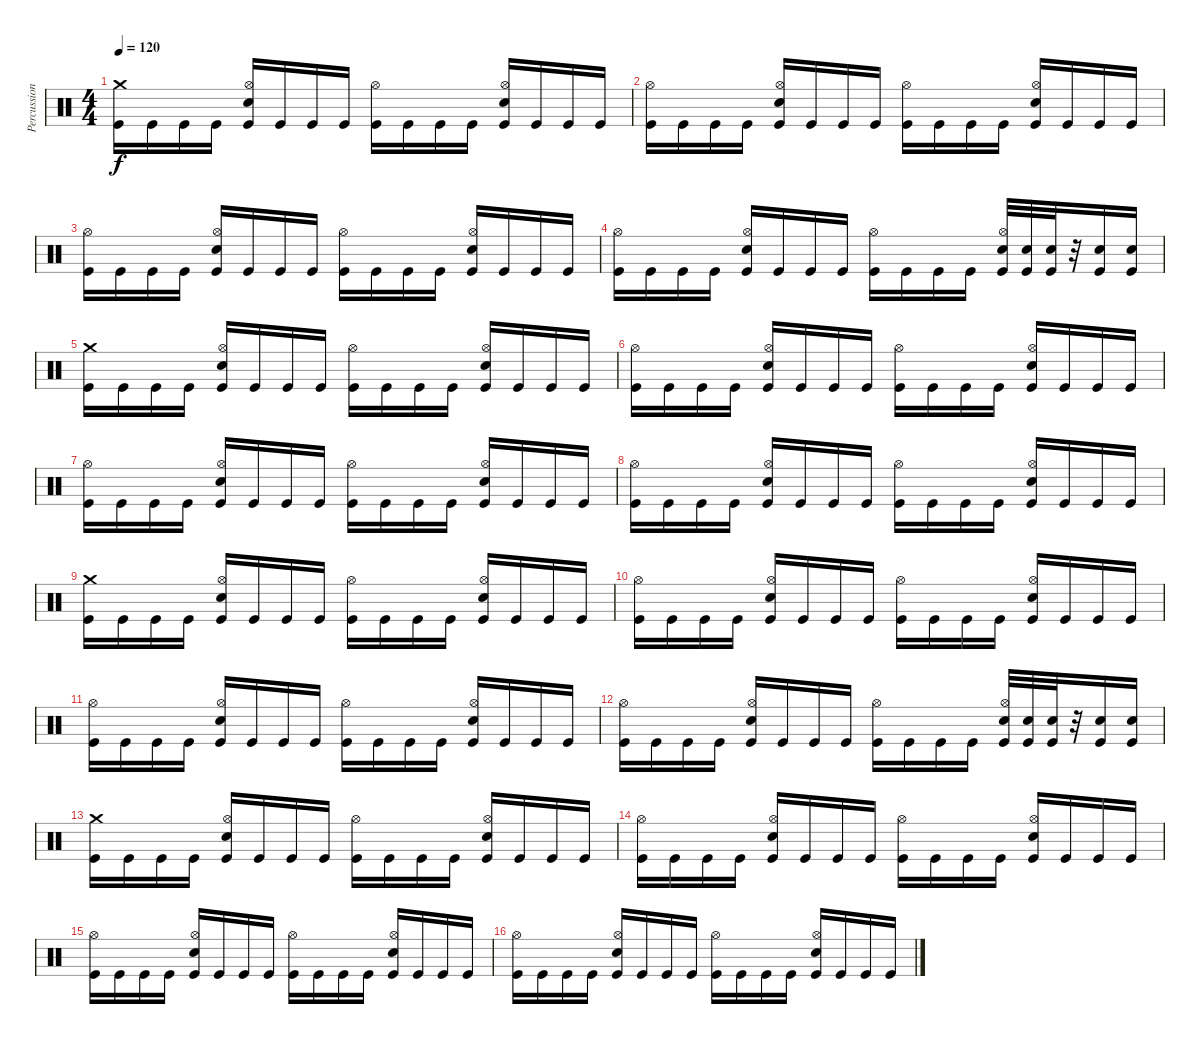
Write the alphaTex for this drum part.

\track ("Percussion" "Percussion") {instrument percussion}
\staff {score}
\articulation defaults
\ts (4 4)
\tempo 120
\clef neutral
\ks c
("Crash medium (hit)" "Kick (hit)").16{dy f} "Kick (hit)".16 "Kick (hit)".16 "Kick (hit)".16 ("Hi-Hat (open)" "Electric Snare (hit)" "Kick (hit)").16 "Kick (hit)".16 "Kick (hit)".16 "Kick (hit)".16 ("Hi-Hat (open)" "Kick (hit)").16 "Kick (hit)".16 "Kick (hit)".16 "Kick (hit)".16 ("Hi-Hat (open)" "Electric Snare (hit)" "Kick (hit)").16 "Kick (hit)".16 "Kick (hit)".16 "Kick (hit)".16 |
("Hi-Hat (open)" "Kick (hit)").16 "Kick (hit)".16 "Kick (hit)".16 "Kick (hit)".16 ("Hi-Hat (open)" "Electric Snare (hit)" "Kick (hit)").16 "Kick (hit)".16 "Kick (hit)".16 "Kick (hit)".16 ("Hi-Hat (open)" "Kick (hit)").16 "Kick (hit)".16 "Kick (hit)".16 "Kick (hit)".16 ("Hi-Hat (open)" "Electric Snare (hit)" "Kick (hit)").16 "Kick (hit)".16 "Kick (hit)".16 "Kick (hit)".16 |
("Hi-Hat (open)" "Kick (hit)").16 "Kick (hit)".16 "Kick (hit)".16 "Kick (hit)".16 ("Hi-Hat (open)" "Electric Snare (hit)" "Kick (hit)").16 "Kick (hit)".16 "Kick (hit)".16 "Kick (hit)".16 ("Hi-Hat (open)" "Kick (hit)").16 "Kick (hit)".16 "Kick (hit)".16 "Kick (hit)".16 ("Hi-Hat (open)" "Electric Snare (hit)" "Kick (hit)").16 "Kick (hit)".16 "Kick (hit)".16 "Kick (hit)".16 |
("Hi-Hat (open)" "Kick (hit)").16 "Kick (hit)".16 "Kick (hit)".16 "Kick (hit)".16 ("Hi-Hat (open)" "Electric Snare (hit)" "Kick (hit)").16 "Kick (hit)".16 "Kick (hit)".16 "Kick (hit)".16 ("Hi-Hat (open)" "Kick (hit)").16 "Kick (hit)".16 "Kick (hit)".16 "Kick (hit)".16 ("Hi-Hat (open)" "Electric Snare (hit)" "Kick (hit)").32 ("Electric Snare (hit)" "Kick (hit)").32 ("Electric Snare (hit)" "Kick (hit)").32 r.32 ("Electric Snare (hit)" "Kick (hit)").16 ("Electric Snare (hit)" "Kick (hit)").16 |
("Crash medium (hit)" "Kick (hit)").16 "Kick (hit)".16 "Kick (hit)".16 "Kick (hit)".16 ("Hi-Hat (open)" "Electric Snare (hit)" "Kick (hit)").16 "Kick (hit)".16 "Kick (hit)".16 "Kick (hit)".16 ("Hi-Hat (open)" "Kick (hit)").16 "Kick (hit)".16 "Kick (hit)".16 "Kick (hit)".16 ("Hi-Hat (open)" "Electric Snare (hit)" "Kick (hit)").16 "Kick (hit)".16 "Kick (hit)".16 "Kick (hit)".16 |
("Hi-Hat (open)" "Kick (hit)").16 "Kick (hit)".16 "Kick (hit)".16 "Kick (hit)".16 ("Hi-Hat (open)" "Electric Snare (hit)" "Kick (hit)").16 "Kick (hit)".16 "Kick (hit)".16 "Kick (hit)".16 ("Hi-Hat (open)" "Kick (hit)").16 "Kick (hit)".16 "Kick (hit)".16 "Kick (hit)".16 ("Hi-Hat (open)" "Electric Snare (hit)" "Kick (hit)").16 "Kick (hit)".16 "Kick (hit)".16 "Kick (hit)".16 |
("Hi-Hat (open)" "Kick (hit)").16 "Kick (hit)".16 "Kick (hit)".16 "Kick (hit)".16 ("Hi-Hat (open)" "Electric Snare (hit)" "Kick (hit)").16 "Kick (hit)".16 "Kick (hit)".16 "Kick (hit)".16 ("Hi-Hat (open)" "Kick (hit)").16 "Kick (hit)".16 "Kick (hit)".16 "Kick (hit)".16 ("Hi-Hat (open)" "Electric Snare (hit)" "Kick (hit)").16 "Kick (hit)".16 "Kick (hit)".16 "Kick (hit)".16 |
("Hi-Hat (open)" "Kick (hit)").16 "Kick (hit)".16 "Kick (hit)".16 "Kick (hit)".16 ("Hi-Hat (open)" "Electric Snare (hit)" "Kick (hit)").16 "Kick (hit)".16 "Kick (hit)".16 "Kick (hit)".16 ("Hi-Hat (open)" "Kick (hit)").16 "Kick (hit)".16 "Kick (hit)".16 "Kick (hit)".16 ("Hi-Hat (open)" "Electric Snare (hit)" "Kick (hit)").16 "Kick (hit)".16 "Kick (hit)".16 "Kick (hit)".16 |
("Crash medium (hit)" "Kick (hit)").16 "Kick (hit)".16 "Kick (hit)".16 "Kick (hit)".16 ("Hi-Hat (open)" "Electric Snare (hit)" "Kick (hit)").16 "Kick (hit)".16 "Kick (hit)".16 "Kick (hit)".16 ("Hi-Hat (open)" "Kick (hit)").16 "Kick (hit)".16 "Kick (hit)".16 "Kick (hit)".16 ("Hi-Hat (open)" "Electric Snare (hit)" "Kick (hit)").16 "Kick (hit)".16 "Kick (hit)".16 "Kick (hit)".16 |
("Hi-Hat (open)" "Kick (hit)").16 "Kick (hit)".16 "Kick (hit)".16 "Kick (hit)".16 ("Hi-Hat (open)" "Electric Snare (hit)" "Kick (hit)").16 "Kick (hit)".16 "Kick (hit)".16 "Kick (hit)".16 ("Hi-Hat (open)" "Kick (hit)").16 "Kick (hit)".16 "Kick (hit)".16 "Kick (hit)".16 ("Hi-Hat (open)" "Electric Snare (hit)" "Kick (hit)").16 "Kick (hit)".16 "Kick (hit)".16 "Kick (hit)".16 |
("Hi-Hat (open)" "Kick (hit)").16 "Kick (hit)".16 "Kick (hit)".16 "Kick (hit)".16 ("Hi-Hat (open)" "Electric Snare (hit)" "Kick (hit)").16 "Kick (hit)".16 "Kick (hit)".16 "Kick (hit)".16 ("Hi-Hat (open)" "Kick (hit)").16 "Kick (hit)".16 "Kick (hit)".16 "Kick (hit)".16 ("Hi-Hat (open)" "Electric Snare (hit)" "Kick (hit)").16 "Kick (hit)".16 "Kick (hit)".16 "Kick (hit)".16 |
("Hi-Hat (open)" "Kick (hit)").16 "Kick (hit)".16 "Kick (hit)".16 "Kick (hit)".16 ("Hi-Hat (open)" "Electric Snare (hit)" "Kick (hit)").16 "Kick (hit)".16 "Kick (hit)".16 "Kick (hit)".16 ("Hi-Hat (open)" "Kick (hit)").16 "Kick (hit)".16 "Kick (hit)".16 "Kick (hit)".16 ("Hi-Hat (open)" "Electric Snare (hit)" "Kick (hit)").32 ("Electric Snare (hit)" "Kick (hit)").32 ("Electric Snare (hit)" "Kick (hit)").32 r.32 ("Electric Snare (hit)" "Kick (hit)").16 ("Electric Snare (hit)" "Kick (hit)").16 |
("Crash medium (hit)" "Kick (hit)").16 "Kick (hit)".16 "Kick (hit)".16 "Kick (hit)".16 ("Hi-Hat (open)" "Electric Snare (hit)" "Kick (hit)").16 "Kick (hit)".16 "Kick (hit)".16 "Kick (hit)".16 ("Hi-Hat (open)" "Kick (hit)").16 "Kick (hit)".16 "Kick (hit)".16 "Kick (hit)".16 ("Hi-Hat (open)" "Electric Snare (hit)" "Kick (hit)").16 "Kick (hit)".16 "Kick (hit)".16 "Kick (hit)".16 |
("Hi-Hat (open)" "Kick (hit)").16 "Kick (hit)".16 "Kick (hit)".16 "Kick (hit)".16 ("Hi-Hat (open)" "Electric Snare (hit)" "Kick (hit)").16 "Kick (hit)".16 "Kick (hit)".16 "Kick (hit)".16 ("Hi-Hat (open)" "Kick (hit)").16 "Kick (hit)".16 "Kick (hit)".16 "Kick (hit)".16 ("Hi-Hat (open)" "Electric Snare (hit)" "Kick (hit)").16 "Kick (hit)".16 "Kick (hit)".16 "Kick (hit)".16 |
("Hi-Hat (open)" "Kick (hit)").16 "Kick (hit)".16 "Kick (hit)".16 "Kick (hit)".16 ("Hi-Hat (open)" "Electric Snare (hit)" "Kick (hit)").16 "Kick (hit)".16 "Kick (hit)".16 "Kick (hit)".16 ("Hi-Hat (open)" "Kick (hit)").16 "Kick (hit)".16 "Kick (hit)".16 "Kick (hit)".16 ("Hi-Hat (open)" "Electric Snare (hit)" "Kick (hit)").16 "Kick (hit)".16 "Kick (hit)".16 "Kick (hit)".16 |
("Hi-Hat (open)" "Kick (hit)").16 "Kick (hit)".16 "Kick (hit)".16 "Kick (hit)".16 ("Hi-Hat (open)" "Electric Snare (hit)" "Kick (hit)").16 "Kick (hit)".16 "Kick (hit)".16 "Kick (hit)".16 ("Hi-Hat (open)" "Kick (hit)").16 "Kick (hit)".16 "Kick (hit)".16 "Kick (hit)".16 ("Hi-Hat (open)" "Electric Snare (hit)" "Kick (hit)").16 "Kick (hit)".16 "Kick (hit)".16 "Kick (hit)".16
